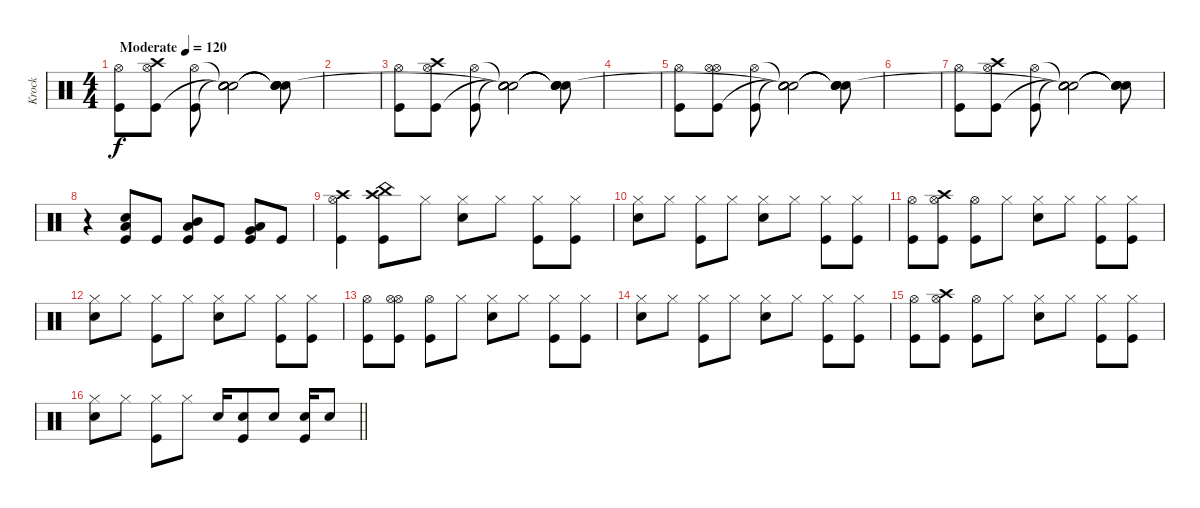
\track ("Krock" "Krock") {instrument percussion}
\staff {score}
\articulation defaults
\ts (4 4)
\tempo (120 "Moderate")
\clef neutral
\ks c
("Hi-Hat (open)" "Kick (hit)").8{dy f} ("Crash high (hit)" "Hi-Hat (open)" "Kick (hit)").8 ("Hi-Hat (open)" "Kick (hit)").8 ("Snare (hit)"{t} "Snare (hit)"{t} "Snare (hit)"{t} "Snare (hit)").2 ("Snare (hit)"{t} "Snare (hit)"{t} "Snare (hit)"{t} "Snare (hit)"{t}).8 |
|
("Hi-Hat (open)" "Kick (hit)").8 ("Crash high (hit)" "Hi-Hat (open)" "Kick (hit)").8 ("Hi-Hat (open)" "Kick (hit)").8 ("Snare (hit)"{t} "Snare (hit)"{t} "Snare (hit)"{t} "Snare (hit)"{t}).2 ("Snare (hit)"{t} "Snare (hit)"{t} "Snare (hit)"{t} "Snare (hit)"{t}).8 |
|
("Hi-Hat (open)" "Kick (hit)").8 ("Hi-Hat (open)" "Hi-Hat (open)" "Kick (hit)").8 ("Hi-Hat (open)" "Kick (hit)").8 ("Snare (hit)"{t} "Snare (hit)"{t} "Snare (hit)"{t} "Snare (hit)"{t}).2 ("Snare (hit)"{t} "Snare (hit)"{t} "Snare (hit)"{t} "Snare (hit)"{t}).8 |
|
("Hi-Hat (open)" "Kick (hit)").8 ("Crash high (hit)" "Hi-Hat (open)" "Kick (hit)").8 ("Hi-Hat (open)" "Kick (hit)").8 ("Snare (hit)"{t} "Snare (hit)"{t} "Snare (hit)"{t} "Snare (hit)"{t}).2 ("Snare (hit)"{t} "Snare (hit)"{t} "Snare (hit)"{t} "Snare (hit)"{t}).8 |
r.4 ("Low Floor Tom (hit)" "Snare (hit) 2" "Kick (hit)").8 "Kick (hit)".8 ("Low Tom (hit)" "Mid Tom (hit)" "Kick (hit)").8 "Kick (hit)".8 ("Low Floor Tom (hit)" "Very Low Tom (hit)" "Kick (hit)").8 "Kick (hit)".8 |
("Hi-Hat (open)" "Crash high (hit)" "Kick (hit)").4 ("China (hit)" "Crash high (hit)" "Kick (hit)").8 "Hi-Hat (closed)".8 ("Hi-Hat (closed)" "Snare (hit) 2").8 "Hi-Hat (closed)".8 ("Hi-Hat (closed)" "Kick (hit)").8 ("Hi-Hat (closed)" "Kick (hit)").8 |
("Hi-Hat (closed)" "Snare (hit) 2").8 "Hi-Hat (closed)".8 ("Hi-Hat (closed)" "Kick (hit)").8 "Hi-Hat (closed)".8 ("Hi-Hat (closed)" "Snare (hit) 2").8 "Hi-Hat (closed)".8 ("Hi-Hat (closed)" "Kick (hit)").8 ("Hi-Hat (closed)" "Kick (hit)").8 |
("Hi-Hat (open)" "Kick (hit)").8 ("Crash high (hit)" "Hi-Hat (open)" "Kick (hit)").8 ("Hi-Hat (open)" "Kick (hit)").8 "Hi-Hat (closed)".8 ("Hi-Hat (closed)" "Snare (hit) 2").8 "Hi-Hat (closed)".8 ("Hi-Hat (closed)" "Kick (hit)").8 ("Hi-Hat (closed)" "Kick (hit)").8 |
("Hi-Hat (closed)" "Snare (hit) 2").8 "Hi-Hat (closed)".8 ("Hi-Hat (closed)" "Kick (hit)").8 "Hi-Hat (closed)".8 ("Hi-Hat (closed)" "Snare (hit) 2").8 "Hi-Hat (closed)".8 ("Hi-Hat (closed)" "Kick (hit)").8 ("Hi-Hat (closed)" "Kick (hit)").8 |
("Hi-Hat (open)" "Kick (hit)").8 ("Hi-Hat (open)" "Hi-Hat (open)" "Kick (hit)").8 ("Hi-Hat (open)" "Kick (hit)").8 "Hi-Hat (closed)".8 ("Hi-Hat (closed)" "Snare (hit) 2").8 "Hi-Hat (closed)".8 ("Hi-Hat (closed)" "Kick (hit)").8 ("Hi-Hat (closed)" "Kick (hit)").8 |
("Hi-Hat (closed)" "Snare (hit) 2").8 "Hi-Hat (closed)".8 ("Hi-Hat (closed)" "Kick (hit)").8 "Hi-Hat (closed)".8 ("Hi-Hat (closed)" "Snare (hit) 2").8 "Hi-Hat (closed)".8 ("Hi-Hat (closed)" "Kick (hit)").8 ("Hi-Hat (closed)" "Kick (hit)").8 |
("Hi-Hat (open)" "Kick (hit)").8 ("Crash high (hit)" "Hi-Hat (open)" "Kick (hit)").8 ("Hi-Hat (open)" "Kick (hit)").8 "Hi-Hat (closed)".8 ("Hi-Hat (closed)" "Snare (hit) 2").8 "Hi-Hat (closed)".8 ("Hi-Hat (closed)" "Kick (hit)").8 ("Hi-Hat (closed)" "Kick (hit)").8 |
\barLineRight lightlight
("Hi-Hat (closed)" "Snare (hit) 2").8 "Hi-Hat (closed)".8 ("Hi-Hat (closed)" "Kick (hit)").8 "Hi-Hat (closed)".8 "Snare (hit) 2".16 ("Snare (hit) 2" "Kick (hit)").8 "Snare (hit) 2".8 ("Snare (hit) 2" "Kick (hit)").16 "Snare (hit) 2".8
